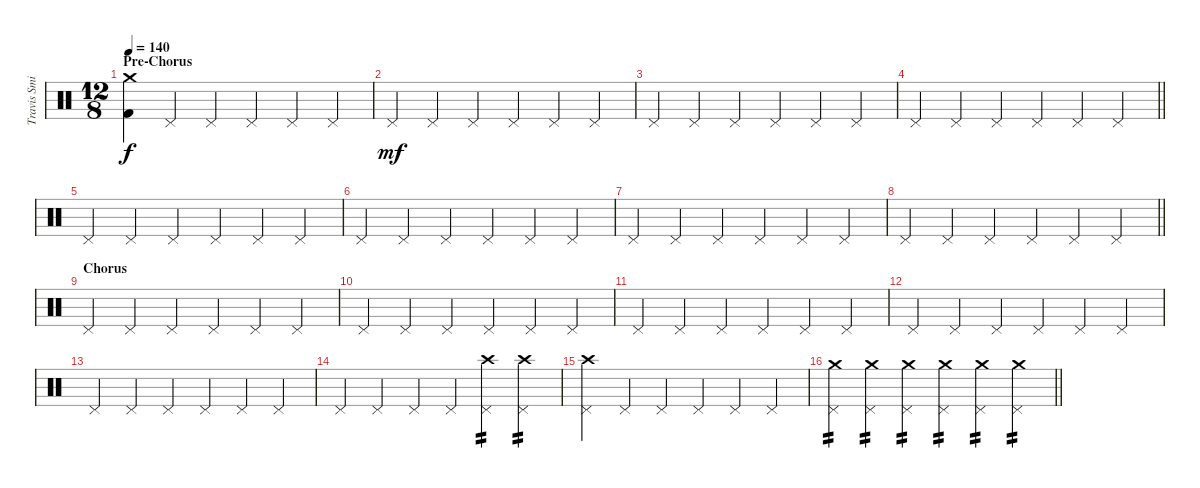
\track ("Travis Smith" "Travis Smi") {instrument percussion}
\staff {score}
\articulation defaults
\ts (12 8)
\section ("" "Pre-Chorus")
\tempo 140
\clef neutral
\ks c
("Crash medium (hit)" "Kick (hit) 2").4{dy f} "Pedal Hi-Hat (hit)".4 "Pedal Hi-Hat (hit)".4 "Pedal Hi-Hat (hit)".4 "Pedal Hi-Hat (hit)".4 "Pedal Hi-Hat (hit)".4 |
"Pedal Hi-Hat (hit)".4{dy mf} "Pedal Hi-Hat (hit)".4 "Pedal Hi-Hat (hit)".4 "Pedal Hi-Hat (hit)".4 "Pedal Hi-Hat (hit)".4 "Pedal Hi-Hat (hit)".4 |
"Pedal Hi-Hat (hit)".4 "Pedal Hi-Hat (hit)".4 "Pedal Hi-Hat (hit)".4 "Pedal Hi-Hat (hit)".4 "Pedal Hi-Hat (hit)".4 "Pedal Hi-Hat (hit)".4 |
\barLineRight lightlight "Pedal Hi-Hat (hit)".4 "Pedal Hi-Hat (hit)".4 "Pedal Hi-Hat (hit)".4 "Pedal Hi-Hat (hit)".4 "Pedal Hi-Hat (hit)".4 "Pedal Hi-Hat (hit)".4
|
"Pedal Hi-Hat (hit)".4 "Pedal Hi-Hat (hit)".4 "Pedal Hi-Hat (hit)".4 "Pedal Hi-Hat (hit)".4 "Pedal Hi-Hat (hit)".4 "Pedal Hi-Hat (hit)".4 |
"Pedal Hi-Hat (hit)".4 "Pedal Hi-Hat (hit)".4 "Pedal Hi-Hat (hit)".4 "Pedal Hi-Hat (hit)".4 "Pedal Hi-Hat (hit)".4 "Pedal Hi-Hat (hit)".4 |
"Pedal Hi-Hat (hit)".4 "Pedal Hi-Hat (hit)".4 "Pedal Hi-Hat (hit)".4 "Pedal Hi-Hat (hit)".4 "Pedal Hi-Hat (hit)".4 "Pedal Hi-Hat (hit)".4 |
\barLineRight lightlight "Pedal Hi-Hat (hit)".4 "Pedal Hi-Hat (hit)".4 "Pedal Hi-Hat (hit)".4 "Pedal Hi-Hat (hit)".4 "Pedal Hi-Hat (hit)".4 "Pedal Hi-Hat (hit)".4
|
\section ("" "Chorus")
"Pedal Hi-Hat (hit)".4 "Pedal Hi-Hat (hit)".4 "Pedal Hi-Hat (hit)".4 "Pedal Hi-Hat (hit)".4 "Pedal Hi-Hat (hit)".4 "Pedal Hi-Hat (hit)".4 |
"Pedal Hi-Hat (hit)".4 "Pedal Hi-Hat (hit)".4 "Pedal Hi-Hat (hit)".4 "Pedal Hi-Hat (hit)".4 "Pedal Hi-Hat (hit)".4 "Pedal Hi-Hat (hit)".4 |
"Pedal Hi-Hat (hit)".4 "Pedal Hi-Hat (hit)".4 "Pedal Hi-Hat (hit)".4 "Pedal Hi-Hat (hit)".4 "Pedal Hi-Hat (hit)".4 "Pedal Hi-Hat (hit)".4 |
"Pedal Hi-Hat (hit)".4 "Pedal Hi-Hat (hit)".4 "Pedal Hi-Hat (hit)".4 "Pedal Hi-Hat (hit)".4 "Pedal Hi-Hat (hit)".4 "Pedal Hi-Hat (hit)".4 |
"Pedal Hi-Hat (hit)".4 "Pedal Hi-Hat (hit)".4 "Pedal Hi-Hat (hit)".4 "Pedal Hi-Hat (hit)".4 "Pedal Hi-Hat (hit)".4 "Pedal Hi-Hat (hit)".4 |
"Pedal Hi-Hat (hit)".4 "Pedal Hi-Hat (hit)".4 "Pedal Hi-Hat (hit)".4 "Pedal Hi-Hat (hit)".4 ("Crash high (hit)" "Pedal Hi-Hat (hit)").4{tp 2} ("Crash high (hit)" "Pedal Hi-Hat (hit)").4{tp 2} |
("Crash high (hit)" "Pedal Hi-Hat (hit)").4 "Pedal Hi-Hat (hit)".4 "Pedal Hi-Hat (hit)".4 "Pedal Hi-Hat (hit)".4 "Pedal Hi-Hat (hit)".4 "Pedal Hi-Hat (hit)".4 |
\barLineRight lightlight
("Crash medium (hit)" "Pedal Hi-Hat (hit)").4{tp 2} ("Crash medium (hit)" "Pedal Hi-Hat (hit)").4{tp 2} ("Crash medium (hit)" "Pedal Hi-Hat (hit)").4{tp 2} ("Crash medium (hit)" "Pedal Hi-Hat (hit)").4{tp 2} ("Crash medium (hit)" "Pedal Hi-Hat (hit)").4{tp 2} ("Crash medium (hit)" "Pedal Hi-Hat (hit)").4{tp 2}
